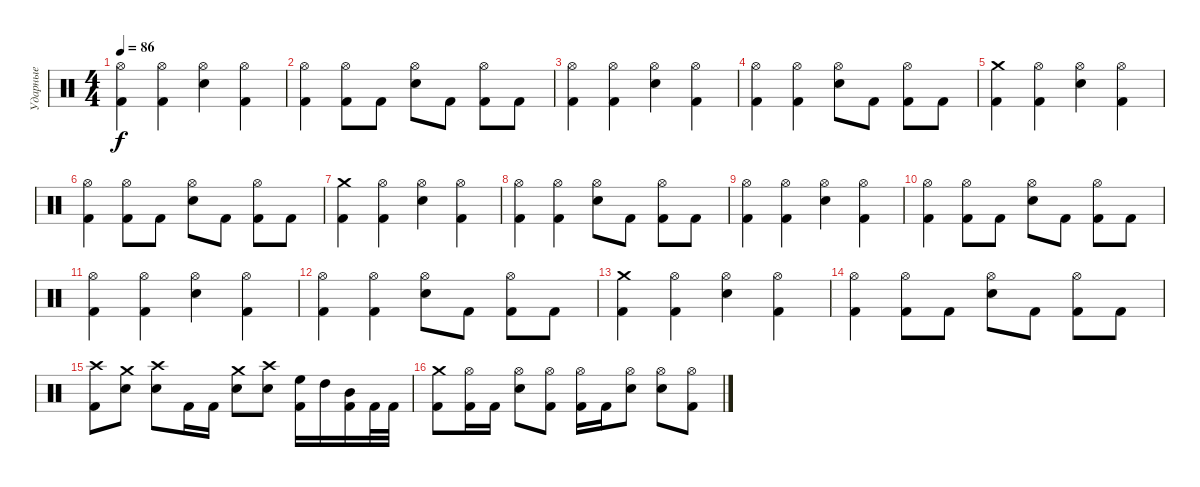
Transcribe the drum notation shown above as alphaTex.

\track ("Ударные" "Ударные") {instrument percussion}
\staff {score}
\articulation defaults
\ts (4 4)
\tempo 86
\clef neutral
\ks c
("Hi-Hat (open)" "Kick (hit) 2").4{dy f} ("Hi-Hat (open)" "Kick (hit) 2").4 ("Hi-Hat (open)" "Electric Snare (hit)").4 ("Hi-Hat (open)" "Kick (hit) 2").4 |
("Hi-Hat (open)" "Kick (hit) 2").4 ("Hi-Hat (open)" "Kick (hit) 2").8 "Kick (hit) 2".8 ("Hi-Hat (open)" "Electric Snare (hit)").8 "Kick (hit) 2".8 ("Hi-Hat (open)" "Kick (hit) 2").8 "Kick (hit) 2".8 |
("Hi-Hat (open)" "Kick (hit) 2").4 ("Hi-Hat (open)" "Kick (hit) 2").4 ("Hi-Hat (open)" "Electric Snare (hit)").4 ("Hi-Hat (open)" "Kick (hit) 2").4 |
("Hi-Hat (open)" "Kick (hit) 2").4 ("Hi-Hat (open)" "Kick (hit) 2").4 ("Hi-Hat (open)" "Electric Snare (hit)").8 "Kick (hit) 2".8 ("Hi-Hat (open)" "Kick (hit) 2").8 "Kick (hit) 2".8 |
("Crash medium (hit)" "Kick (hit) 2").4 ("Hi-Hat (open)" "Kick (hit) 2").4 ("Hi-Hat (open)" "Electric Snare (hit)").4 ("Hi-Hat (open)" "Kick (hit) 2").4 |
("Hi-Hat (open)" "Kick (hit) 2").4 ("Hi-Hat (open)" "Kick (hit) 2").8 "Kick (hit) 2".8 ("Hi-Hat (open)" "Electric Snare (hit)").8 "Kick (hit) 2".8 ("Hi-Hat (open)" "Kick (hit) 2").8 "Kick (hit) 2".8 |
("Crash medium (hit)" "Kick (hit) 2").4 ("Hi-Hat (open)" "Kick (hit) 2").4 ("Hi-Hat (open)" "Electric Snare (hit)").4 ("Hi-Hat (open)" "Kick (hit) 2").4 |
("Hi-Hat (open)" "Kick (hit) 2").4 ("Hi-Hat (open)" "Kick (hit) 2").4 ("Hi-Hat (open)" "Electric Snare (hit)").8 "Kick (hit) 2".8 ("Hi-Hat (open)" "Kick (hit) 2").8 "Kick (hit) 2".8 |
("Hi-Hat (open)" "Kick (hit) 2").4 ("Hi-Hat (open)" "Kick (hit) 2").4 ("Hi-Hat (open)" "Electric Snare (hit)").4 ("Hi-Hat (open)" "Kick (hit) 2").4 |
("Hi-Hat (open)" "Kick (hit) 2").4 ("Hi-Hat (open)" "Kick (hit) 2").8 "Kick (hit) 2".8 ("Hi-Hat (open)" "Electric Snare (hit)").8 "Kick (hit) 2".8 ("Hi-Hat (open)" "Kick (hit) 2").8 "Kick (hit) 2".8 |
("Hi-Hat (open)" "Kick (hit) 2").4 ("Hi-Hat (open)" "Kick (hit) 2").4 ("Hi-Hat (open)" "Electric Snare (hit)").4 ("Hi-Hat (open)" "Kick (hit) 2").4 |
("Hi-Hat (open)" "Kick (hit) 2").4 ("Hi-Hat (open)" "Kick (hit) 2").4 ("Hi-Hat (open)" "Electric Snare (hit)").8 "Kick (hit) 2".8 ("Hi-Hat (open)" "Kick (hit) 2").8 "Kick (hit) 2".8 |
("Crash medium (hit)" "Kick (hit) 2").4 ("Hi-Hat (open)" "Kick (hit) 2").4 ("Hi-Hat (open)" "Electric Snare (hit)").4 ("Hi-Hat (open)" "Kick (hit) 2").4 |
("Hi-Hat (open)" "Kick (hit) 2").4 ("Hi-Hat (open)" "Kick (hit) 2").8 "Kick (hit) 2".8 ("Hi-Hat (open)" "Electric Snare (hit)").8 "Kick (hit) 2".8 ("Hi-Hat (open)" "Kick (hit) 2").8 "Kick (hit) 2".8 |
("Crash high (hit)" "Kick (hit) 2").8 ("Crash medium (hit)" "Electric Snare (hit)").8 ("Crash high (hit)" "Electric Snare (hit)").8 "Kick (hit) 2".16 "Kick (hit) 2".16 ("Crash medium (hit)" "Electric Snare (hit)").8 ("Crash high (hit)" "Electric Snare (hit)").8 ("High Floor Tom (hit)" "Kick (hit) 2").16 "High Tom (hit)".16 ("Mid Tom (hit)" "Kick (hit) 2").16 "Kick (hit) 2".32 "Kick (hit) 2".32 |
("Crash medium (hit)" "Kick (hit) 2").8 ("Hi-Hat (open)" "Kick (hit) 2").16 "Kick (hit) 2".16 ("Hi-Hat (open)" "Electric Snare (hit)").8 ("Hi-Hat (open)" "Kick (hit) 2").8 ("Hi-Hat (open)" "Kick (hit) 2").16 "Kick (hit) 2".16 ("Hi-Hat (open)" "Electric Snare (hit)").8 ("Hi-Hat (open)" "Electric Snare (hit)").8 ("Hi-Hat (open)" "Kick (hit) 2").8
